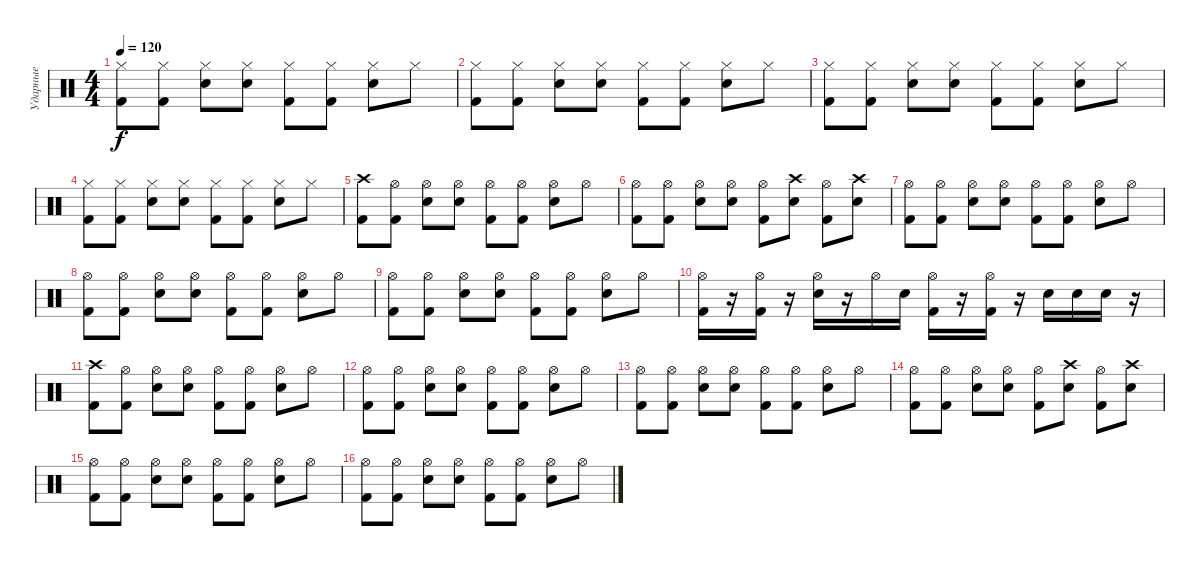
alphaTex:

\track ("Ударные" "Ударные") {instrument percussion}
\staff {score}
\articulation defaults
\ts (4 4)
\tempo 120
\clef neutral
\ks c
("Hi-Hat (closed)" "Kick (hit) 2").8{dy f} ("Hi-Hat (closed)" "Kick (hit) 2").8 ("Hi-Hat (closed)" "Snare (hit) 2").8 ("Hi-Hat (closed)" "Snare (hit) 2").8 ("Hi-Hat (closed)" "Kick (hit) 2").8 ("Hi-Hat (closed)" "Kick (hit) 2").8 ("Hi-Hat (closed)" "Snare (hit) 2").8 "Hi-Hat (closed)".8 |
("Hi-Hat (closed)" "Kick (hit) 2").8 ("Hi-Hat (closed)" "Kick (hit) 2").8 ("Hi-Hat (closed)" "Snare (hit) 2").8 ("Hi-Hat (closed)" "Snare (hit) 2").8 ("Hi-Hat (closed)" "Kick (hit) 2").8 ("Hi-Hat (closed)" "Kick (hit) 2").8 ("Hi-Hat (closed)" "Snare (hit) 2").8 "Hi-Hat (closed)".8 |
("Hi-Hat (closed)" "Kick (hit) 2").8 ("Hi-Hat (closed)" "Kick (hit) 2").8 ("Hi-Hat (closed)" "Snare (hit) 2").8 ("Hi-Hat (closed)" "Snare (hit) 2").8 ("Hi-Hat (closed)" "Kick (hit) 2").8 ("Hi-Hat (closed)" "Kick (hit) 2").8 ("Hi-Hat (closed)" "Snare (hit) 2").8 "Hi-Hat (closed)".8 |
("Hi-Hat (closed)" "Kick (hit) 2").8 ("Hi-Hat (closed)" "Kick (hit) 2").8 ("Hi-Hat (closed)" "Snare (hit) 2").8 ("Hi-Hat (closed)" "Snare (hit) 2").8 ("Hi-Hat (closed)" "Kick (hit) 2").8 ("Hi-Hat (closed)" "Kick (hit) 2").8 ("Hi-Hat (closed)" "Snare (hit) 2").8 "Hi-Hat (closed)".8 |
("Crash high (hit)" "Kick (hit) 2").8 ("Hi-Hat (open)" "Kick (hit) 2").8 ("Hi-Hat (open)" "Snare (hit) 2").8 ("Hi-Hat (open)" "Snare (hit) 2").8 ("Hi-Hat (open)" "Kick (hit) 2").8 ("Hi-Hat (open)" "Kick (hit) 2").8 ("Hi-Hat (open)" "Snare (hit) 2").8 "Hi-Hat (open)".8 |
("Hi-Hat (open)" "Kick (hit) 2").8 ("Hi-Hat (open)" "Kick (hit) 2").8 ("Hi-Hat (open)" "Snare (hit) 2").8 ("Hi-Hat (open)" "Snare (hit) 2").8 ("Hi-Hat (open)" "Kick (hit) 2").8 ("Crash high (hit)" "Snare (hit) 2").8 ("Hi-Hat (open)" "Kick (hit) 2").8 ("Crash high (hit)" "Snare (hit) 2").8 |
("Hi-Hat (open)" "Kick (hit) 2").8 ("Hi-Hat (open)" "Kick (hit) 2").8 ("Hi-Hat (open)" "Snare (hit) 2").8 ("Hi-Hat (open)" "Snare (hit) 2").8 ("Hi-Hat (open)" "Kick (hit) 2").8 ("Hi-Hat (open)" "Kick (hit) 2").8 ("Hi-Hat (open)" "Snare (hit) 2").8 "Hi-Hat (open)".8 |
("Hi-Hat (open)" "Kick (hit) 2").8 ("Hi-Hat (open)" "Kick (hit) 2").8 ("Hi-Hat (open)" "Snare (hit) 2").8 ("Hi-Hat (open)" "Snare (hit) 2").8 ("Hi-Hat (open)" "Kick (hit) 2").8 ("Hi-Hat (open)" "Kick (hit) 2").8 ("Hi-Hat (open)" "Snare (hit) 2").8 "Hi-Hat (open)".8 |
("Hi-Hat (open)" "Kick (hit) 2").8 ("Hi-Hat (open)" "Kick (hit) 2").8 ("Hi-Hat (open)" "Snare (hit) 2").8 ("Hi-Hat (open)" "Snare (hit) 2").8 ("Hi-Hat (open)" "Kick (hit) 2").8 ("Hi-Hat (open)" "Kick (hit) 2").8 ("Hi-Hat (open)" "Snare (hit) 2").8 "Hi-Hat (open)".8 |
("Hi-Hat (open)" "Kick (hit) 2").16 r.16 ("Hi-Hat (open)" "Kick (hit) 2").16 r.16 ("Hi-Hat (open)" "Snare (hit) 2").16 r.16 "Hi-Hat (open)".16 "Snare (hit) 2".16 ("Hi-Hat (open)" "Kick (hit) 2").16 r.16 ("Hi-Hat (open)" "Kick (hit) 2").16 r.16 "Snare (hit) 2".16 "Snare (hit) 2".16 "Snare (hit) 2".16 r.16 |
("Crash high (hit)" "Kick (hit) 2").8 ("Hi-Hat (open)" "Kick (hit) 2").8 ("Hi-Hat (open)" "Snare (hit) 2").8 ("Hi-Hat (open)" "Snare (hit) 2").8 ("Hi-Hat (open)" "Kick (hit) 2").8 ("Hi-Hat (open)" "Kick (hit) 2").8 ("Hi-Hat (open)" "Snare (hit) 2").8 "Hi-Hat (open)".8 |
("Hi-Hat (open)" "Kick (hit) 2").8 ("Hi-Hat (open)" "Kick (hit) 2").8 ("Hi-Hat (open)" "Snare (hit) 2").8 ("Hi-Hat (open)" "Snare (hit) 2").8 ("Hi-Hat (open)" "Kick (hit) 2").8 ("Hi-Hat (open)" "Kick (hit) 2").8 ("Hi-Hat (open)" "Snare (hit) 2").8 "Hi-Hat (open)".8 |
("Hi-Hat (open)" "Kick (hit) 2").8 ("Hi-Hat (open)" "Kick (hit) 2").8 ("Hi-Hat (open)" "Snare (hit) 2").8 ("Hi-Hat (open)" "Snare (hit) 2").8 ("Hi-Hat (open)" "Kick (hit) 2").8 ("Hi-Hat (open)" "Kick (hit) 2").8 ("Hi-Hat (open)" "Snare (hit) 2").8 "Hi-Hat (open)".8 |
("Hi-Hat (open)" "Kick (hit) 2").8 ("Hi-Hat (open)" "Kick (hit) 2").8 ("Hi-Hat (open)" "Snare (hit) 2").8 ("Hi-Hat (open)" "Snare (hit) 2").8 ("Hi-Hat (open)" "Kick (hit) 2").8 ("Crash high (hit)" "Snare (hit) 2").8 ("Hi-Hat (open)" "Kick (hit) 2").8 ("Crash high (hit)" "Snare (hit) 2").8 |
("Hi-Hat (open)" "Kick (hit) 2").8 ("Hi-Hat (open)" "Kick (hit) 2").8 ("Hi-Hat (open)" "Snare (hit) 2").8 ("Hi-Hat (open)" "Snare (hit) 2").8 ("Hi-Hat (open)" "Kick (hit) 2").8 ("Hi-Hat (open)" "Kick (hit) 2").8 ("Hi-Hat (open)" "Snare (hit) 2").8 "Hi-Hat (open)".8 |
("Hi-Hat (open)" "Kick (hit) 2").8 ("Hi-Hat (open)" "Kick (hit) 2").8 ("Hi-Hat (open)" "Snare (hit) 2").8 ("Hi-Hat (open)" "Snare (hit) 2").8 ("Hi-Hat (open)" "Kick (hit) 2").8 ("Hi-Hat (open)" "Kick (hit) 2").8 ("Hi-Hat (open)" "Snare (hit) 2").8 "Hi-Hat (open)".8
